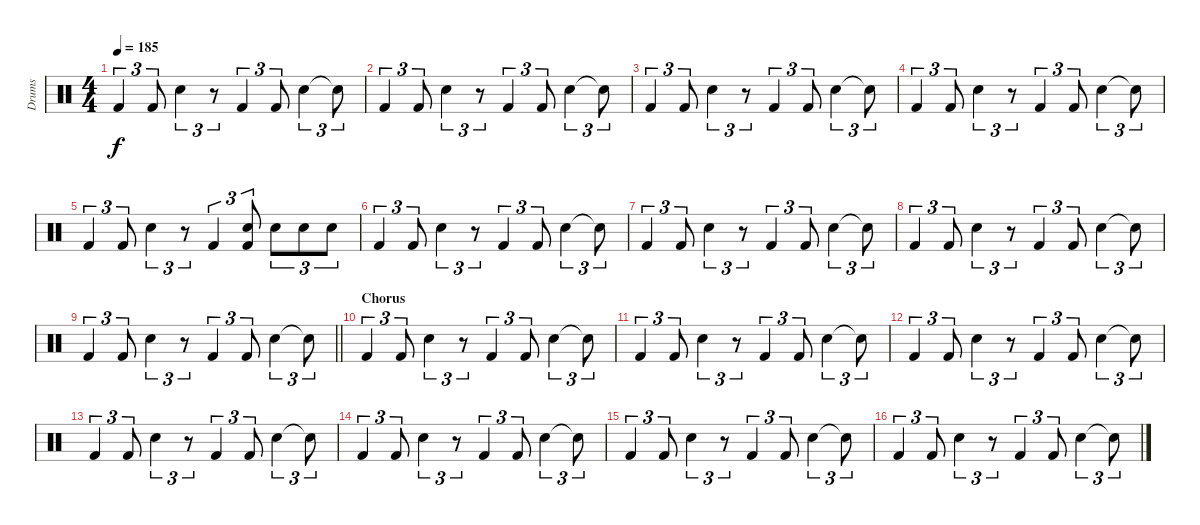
\track ("Drums" "Drums") {instrument percussion}
\staff {score}
\articulation defaults
\ts (4 4)
\tempo 185
\clef neutral
\ks c "Kick (hit) 2".4{tu (3 2) dy f} "Kick (hit) 2".8{tu (3 2)} "Snare (hit) 2".4{tu (3 2)}
r.8{tu (3 2)} "Kick (hit) 2".4{tu (3 2)} "Kick (hit) 2".8{tu (3 2)} "Snare (hit) 2".4{tu (3 2)} "Snare (hit)"{t}.8{tu (3 2)} |
"Kick (hit) 2".4{tu (3 2)} "Kick (hit) 2".8{tu (3 2)} "Snare (hit) 2".4{tu (3 2)} r.8{tu (3 2)} "Kick (hit) 2".4{tu (3 2)} "Kick (hit) 2".8{tu (3 2)} "Snare (hit) 2".4{tu (3 2)} "Snare (hit)"{t}.8{tu (3 2)} |
"Kick (hit) 2".4{tu (3 2)} "Kick (hit) 2".8{tu (3 2)} "Snare (hit) 2".4{tu (3 2)} r.8{tu (3 2)} "Kick (hit) 2".4{tu (3 2)} "Kick (hit) 2".8{tu (3 2)} "Snare (hit) 2".4{tu (3 2)} "Snare (hit)"{t}.8{tu (3 2)} |
"Kick (hit) 2".4{tu (3 2)} "Kick (hit) 2".8{tu (3 2)} "Snare (hit) 2".4{tu (3 2)} r.8{tu (3 2)} "Kick (hit) 2".4{tu (3 2)} "Kick (hit) 2".8{tu (3 2)} "Snare (hit) 2".4{tu (3 2)} "Snare (hit)"{t}.8{tu (3 2)} |
"Kick (hit) 2".4{tu (3 2)} "Kick (hit) 2".8{tu (3 2)} "Snare (hit) 2".4{tu (3 2)} r.8{tu (3 2)} "Kick (hit) 2".4{tu (3 2)} ("Snare (hit) 2" "Kick (hit) 2").8{tu (3 2)} "Snare (hit) 2".8{tu (3 2)} "Snare (hit) 2".8{tu (3 2)} "Snare (hit) 2".8{tu (3 2)} |
"Kick (hit) 2".4{tu (3 2)} "Kick (hit) 2".8{tu (3 2)} "Snare (hit) 2".4{tu (3 2)} r.8{tu (3 2)} "Kick (hit) 2".4{tu (3 2)} "Kick (hit) 2".8{tu (3 2)} "Snare (hit) 2".4{tu (3 2)} "Snare (hit)"{t}.8{tu (3 2)} |
"Kick (hit) 2".4{tu (3 2)} "Kick (hit) 2".8{tu (3 2)} "Snare (hit) 2".4{tu (3 2)} r.8{tu (3 2)} "Kick (hit) 2".4{tu (3 2)} "Kick (hit) 2".8{tu (3 2)} "Snare (hit) 2".4{tu (3 2)} "Snare (hit)"{t}.8{tu (3 2)} |
"Kick (hit) 2".4{tu (3 2)} "Kick (hit) 2".8{tu (3 2)} "Snare (hit) 2".4{tu (3 2)} r.8{tu (3 2)} "Kick (hit) 2".4{tu (3 2)} "Kick (hit) 2".8{tu (3 2)} "Snare (hit) 2".4{tu (3 2)} "Snare (hit)"{t}.8{tu (3 2)} |
\barLineRight lightlight "Kick (hit) 2".4{tu (3 2)} "Kick (hit) 2".8{tu (3 2)} "Snare (hit) 2".4{tu (3 2)}
r.8{tu (3 2)} "Kick (hit) 2".4{tu (3 2)} "Kick (hit) 2".8{tu (3 2)} "Snare (hit) 2".4{tu (3 2)} "Snare (hit)"{t}.8{tu (3 2)} |
\section ("" "Chorus")
"Kick (hit) 2".4{tu (3 2)} "Kick (hit) 2".8{tu (3 2)} "Snare (hit) 2".4{tu (3 2)} r.8{tu (3 2)} "Kick (hit) 2".4{tu (3 2)} "Kick (hit) 2".8{tu (3 2)} "Snare (hit) 2".4{tu (3 2)} "Snare (hit)"{t}.8{tu (3 2)} |
"Kick (hit) 2".4{tu (3 2)} "Kick (hit) 2".8{tu (3 2)} "Snare (hit) 2".4{tu (3 2)} r.8{tu (3 2)} "Kick (hit) 2".4{tu (3 2)} "Kick (hit) 2".8{tu (3 2)} "Snare (hit) 2".4{tu (3 2)} "Snare (hit)"{t}.8{tu (3 2)} |
"Kick (hit) 2".4{tu (3 2)} "Kick (hit) 2".8{tu (3 2)} "Snare (hit) 2".4{tu (3 2)} r.8{tu (3 2)} "Kick (hit) 2".4{tu (3 2)} "Kick (hit) 2".8{tu (3 2)} "Snare (hit) 2".4{tu (3 2)} "Snare (hit)"{t}.8{tu (3 2)} |
"Kick (hit) 2".4{tu (3 2)} "Kick (hit) 2".8{tu (3 2)} "Snare (hit) 2".4{tu (3 2)} r.8{tu (3 2)} "Kick (hit) 2".4{tu (3 2)} "Kick (hit) 2".8{tu (3 2)} "Snare (hit) 2".4{tu (3 2)} "Snare (hit)"{t}.8{tu (3 2)} |
"Kick (hit) 2".4{tu (3 2)} "Kick (hit) 2".8{tu (3 2)} "Snare (hit) 2".4{tu (3 2)} r.8{tu (3 2)} "Kick (hit) 2".4{tu (3 2)} "Kick (hit) 2".8{tu (3 2)} "Snare (hit) 2".4{tu (3 2)} "Snare (hit)"{t}.8{tu (3 2)} |
"Kick (hit) 2".4{tu (3 2)} "Kick (hit) 2".8{tu (3 2)} "Snare (hit) 2".4{tu (3 2)} r.8{tu (3 2)} "Kick (hit) 2".4{tu (3 2)} "Kick (hit) 2".8{tu (3 2)} "Snare (hit) 2".4{tu (3 2)} "Snare (hit)"{t}.8{tu (3 2)} |
"Kick (hit) 2".4{tu (3 2)} "Kick (hit) 2".8{tu (3 2)} "Snare (hit) 2".4{tu (3 2)} r.8{tu (3 2)} "Kick (hit) 2".4{tu (3 2)} "Kick (hit) 2".8{tu (3 2)} "Snare (hit) 2".4{tu (3 2)} "Snare (hit)"{t}.8{tu (3 2)}
